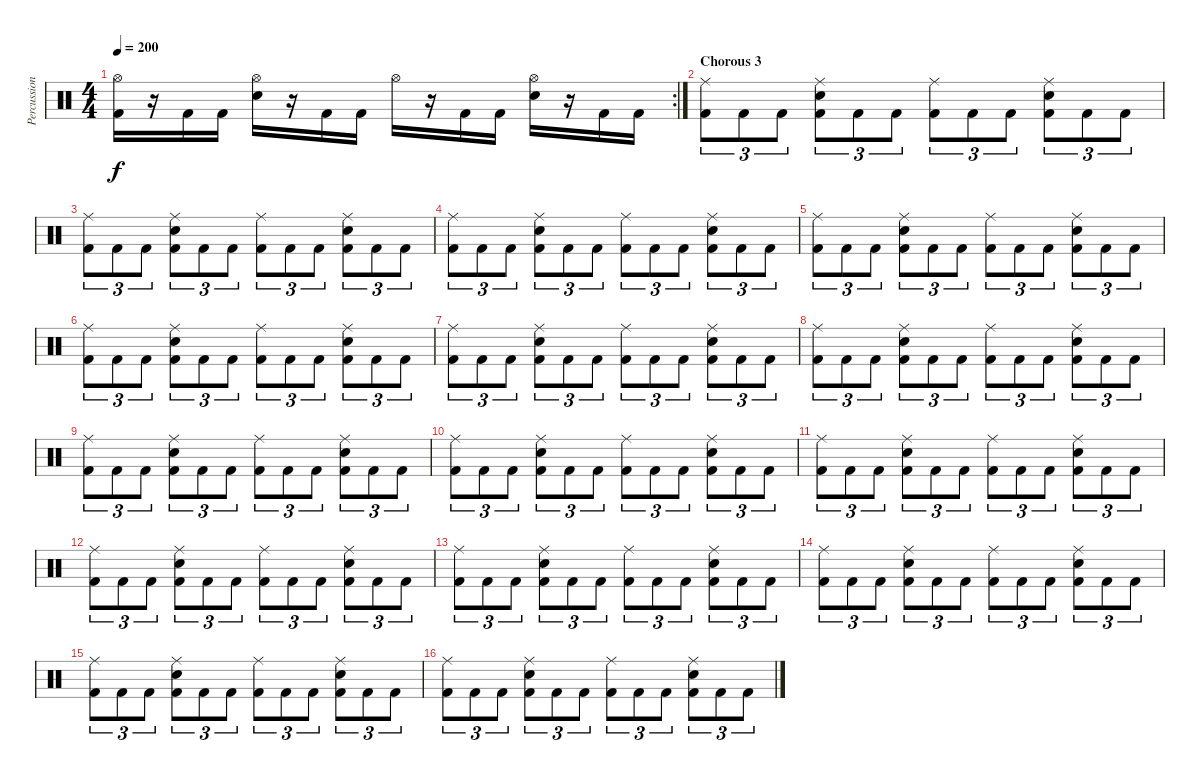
\track ("Percussion" "Percussion") {instrument percussion}
\staff {score}
\articulation defaults
\rc 2
\ts (4 4)
\tempo 200
\clef neutral
\ks c
("Hi-Hat (open)" "Kick (hit) 2").16{dy f} r.16 "Kick (hit) 2".16 "Kick (hit) 2".16 ("Hi-Hat (open)" "Electric Snare (hit)").16 r.16 "Kick (hit) 2".16 "Kick (hit) 2".16 "Hi-Hat (open)".16 r.16 "Kick (hit) 2".16 "Kick (hit) 2".16 ("Hi-Hat (open)" "Electric Snare (hit)").16 r.16 "Kick (hit) 2".16 "Kick (hit) 2".16 |
\section ("" "Chorous 3")
("Ride (middle)" "Kick (hit) 2").8{tu (3 2)} "Kick (hit) 2".8{tu (3 2)} "Kick (hit) 2".8{tu (3 2)} ("Ride (middle)" "Electric Snare (hit)" "Kick (hit) 2").8{tu (3 2)} "Kick (hit) 2".8{tu (3 2)} "Kick (hit) 2".8{tu (3 2)} ("Ride (middle)" "Kick (hit) 2").8{tu (3 2)} "Kick (hit) 2".8{tu (3 2)} "Kick (hit) 2".8{tu (3 2)} ("Ride (middle)" "Electric Snare (hit)" "Kick (hit) 2").8{tu (3 2)} "Kick (hit) 2".8{tu (3 2)} "Kick (hit) 2".8{tu (3 2)} |
("Ride (middle)" "Kick (hit) 2").8{tu (3 2)} "Kick (hit) 2".8{tu (3 2)} "Kick (hit) 2".8{tu (3 2)} ("Ride (middle)" "Electric Snare (hit)" "Kick (hit) 2").8{tu (3 2)} "Kick (hit) 2".8{tu (3 2)} "Kick (hit) 2".8{tu (3 2)} ("Ride (middle)" "Kick (hit) 2").8{tu (3 2)} "Kick (hit) 2".8{tu (3 2)} "Kick (hit) 2".8{tu (3 2)} ("Ride (middle)" "Electric Snare (hit)" "Kick (hit) 2").8{tu (3 2)} "Kick (hit) 2".8{tu (3 2)} "Kick (hit) 2".8{tu (3 2)} |
("Ride (middle)" "Kick (hit) 2").8{tu (3 2)} "Kick (hit) 2".8{tu (3 2)} "Kick (hit) 2".8{tu (3 2)} ("Ride (middle)" "Electric Snare (hit)" "Kick (hit) 2").8{tu (3 2)} "Kick (hit) 2".8{tu (3 2)} "Kick (hit) 2".8{tu (3 2)} ("Ride (middle)" "Kick (hit) 2").8{tu (3 2)} "Kick (hit) 2".8{tu (3 2)} "Kick (hit) 2".8{tu (3 2)} ("Ride (middle)" "Electric Snare (hit)" "Kick (hit) 2").8{tu (3 2)} "Kick (hit) 2".8{tu (3 2)} "Kick (hit) 2".8{tu (3 2)} |
("Ride (middle)" "Kick (hit) 2").8{tu (3 2)} "Kick (hit) 2".8{tu (3 2)} "Kick (hit) 2".8{tu (3 2)} ("Ride (middle)" "Electric Snare (hit)" "Kick (hit) 2").8{tu (3 2)} "Kick (hit) 2".8{tu (3 2)} "Kick (hit) 2".8{tu (3 2)} ("Ride (middle)" "Kick (hit) 2").8{tu (3 2)} "Kick (hit) 2".8{tu (3 2)} "Kick (hit) 2".8{tu (3 2)} ("Ride (middle)" "Electric Snare (hit)" "Kick (hit) 2").8{tu (3 2)} "Kick (hit) 2".8{tu (3 2)} "Kick (hit) 2".8{tu (3 2)} |
("Ride (middle)" "Kick (hit) 2").8{tu (3 2)} "Kick (hit) 2".8{tu (3 2)} "Kick (hit) 2".8{tu (3 2)} ("Ride (middle)" "Electric Snare (hit)" "Kick (hit) 2").8{tu (3 2)} "Kick (hit) 2".8{tu (3 2)} "Kick (hit) 2".8{tu (3 2)} ("Ride (middle)" "Kick (hit) 2").8{tu (3 2)} "Kick (hit) 2".8{tu (3 2)} "Kick (hit) 2".8{tu (3 2)} ("Ride (middle)" "Electric Snare (hit)" "Kick (hit) 2").8{tu (3 2)} "Kick (hit) 2".8{tu (3 2)} "Kick (hit) 2".8{tu (3 2)} |
("Ride (middle)" "Kick (hit) 2").8{tu (3 2)} "Kick (hit) 2".8{tu (3 2)} "Kick (hit) 2".8{tu (3 2)} ("Ride (middle)" "Electric Snare (hit)" "Kick (hit) 2").8{tu (3 2)} "Kick (hit) 2".8{tu (3 2)} "Kick (hit) 2".8{tu (3 2)} ("Ride (middle)" "Kick (hit) 2").8{tu (3 2)} "Kick (hit) 2".8{tu (3 2)} "Kick (hit) 2".8{tu (3 2)} ("Ride (middle)" "Electric Snare (hit)" "Kick (hit) 2").8{tu (3 2)} "Kick (hit) 2".8{tu (3 2)} "Kick (hit) 2".8{tu (3 2)} |
("Ride (middle)" "Kick (hit) 2").8{tu (3 2)} "Kick (hit) 2".8{tu (3 2)} "Kick (hit) 2".8{tu (3 2)} ("Ride (middle)" "Electric Snare (hit)" "Kick (hit) 2").8{tu (3 2)} "Kick (hit) 2".8{tu (3 2)} "Kick (hit) 2".8{tu (3 2)} ("Ride (middle)" "Kick (hit) 2").8{tu (3 2)} "Kick (hit) 2".8{tu (3 2)} "Kick (hit) 2".8{tu (3 2)} ("Ride (middle)" "Electric Snare (hit)" "Kick (hit) 2").8{tu (3 2)} "Kick (hit) 2".8{tu (3 2)} "Kick (hit) 2".8{tu (3 2)} |
("Ride (middle)" "Kick (hit) 2").8{tu (3 2)} "Kick (hit) 2".8{tu (3 2)} "Kick (hit) 2".8{tu (3 2)} ("Ride (middle)" "Electric Snare (hit)" "Kick (hit) 2").8{tu (3 2)} "Kick (hit) 2".8{tu (3 2)} "Kick (hit) 2".8{tu (3 2)} ("Ride (middle)" "Kick (hit) 2").8{tu (3 2)} "Kick (hit) 2".8{tu (3 2)} "Kick (hit) 2".8{tu (3 2)} ("Ride (middle)" "Electric Snare (hit)" "Kick (hit) 2").8{tu (3 2)} "Kick (hit) 2".8{tu (3 2)} "Kick (hit) 2".8{tu (3 2)} |
("Ride (middle)" "Kick (hit) 2").8{tu (3 2)} "Kick (hit) 2".8{tu (3 2)} "Kick (hit) 2".8{tu (3 2)} ("Ride (middle)" "Electric Snare (hit)" "Kick (hit) 2").8{tu (3 2)} "Kick (hit) 2".8{tu (3 2)} "Kick (hit) 2".8{tu (3 2)} ("Ride (middle)" "Kick (hit) 2").8{tu (3 2)} "Kick (hit) 2".8{tu (3 2)} "Kick (hit) 2".8{tu (3 2)} ("Ride (middle)" "Electric Snare (hit)" "Kick (hit) 2").8{tu (3 2)} "Kick (hit) 2".8{tu (3 2)} "Kick (hit) 2".8{tu (3 2)} |
("Ride (middle)" "Kick (hit) 2").8{tu (3 2)} "Kick (hit) 2".8{tu (3 2)} "Kick (hit) 2".8{tu (3 2)} ("Ride (middle)" "Electric Snare (hit)" "Kick (hit) 2").8{tu (3 2)} "Kick (hit) 2".8{tu (3 2)} "Kick (hit) 2".8{tu (3 2)} ("Ride (middle)" "Kick (hit) 2").8{tu (3 2)} "Kick (hit) 2".8{tu (3 2)} "Kick (hit) 2".8{tu (3 2)} ("Ride (middle)" "Electric Snare (hit)" "Kick (hit) 2").8{tu (3 2)} "Kick (hit) 2".8{tu (3 2)} "Kick (hit) 2".8{tu (3 2)} |
("Ride (middle)" "Kick (hit) 2").8{tu (3 2)} "Kick (hit) 2".8{tu (3 2)} "Kick (hit) 2".8{tu (3 2)} ("Ride (middle)" "Electric Snare (hit)" "Kick (hit) 2").8{tu (3 2)} "Kick (hit) 2".8{tu (3 2)} "Kick (hit) 2".8{tu (3 2)} ("Ride (middle)" "Kick (hit) 2").8{tu (3 2)} "Kick (hit) 2".8{tu (3 2)} "Kick (hit) 2".8{tu (3 2)} ("Ride (middle)" "Electric Snare (hit)" "Kick (hit) 2").8{tu (3 2)} "Kick (hit) 2".8{tu (3 2)} "Kick (hit) 2".8{tu (3 2)} |
("Ride (middle)" "Kick (hit) 2").8{tu (3 2)} "Kick (hit) 2".8{tu (3 2)} "Kick (hit) 2".8{tu (3 2)} ("Ride (middle)" "Electric Snare (hit)" "Kick (hit) 2").8{tu (3 2)} "Kick (hit) 2".8{tu (3 2)} "Kick (hit) 2".8{tu (3 2)} ("Ride (middle)" "Kick (hit) 2").8{tu (3 2)} "Kick (hit) 2".8{tu (3 2)} "Kick (hit) 2".8{tu (3 2)} ("Ride (middle)" "Electric Snare (hit)" "Kick (hit) 2").8{tu (3 2)} "Kick (hit) 2".8{tu (3 2)} "Kick (hit) 2".8{tu (3 2)} |
("Ride (middle)" "Kick (hit) 2").8{tu (3 2)} "Kick (hit) 2".8{tu (3 2)} "Kick (hit) 2".8{tu (3 2)} ("Ride (middle)" "Electric Snare (hit)" "Kick (hit) 2").8{tu (3 2)} "Kick (hit) 2".8{tu (3 2)} "Kick (hit) 2".8{tu (3 2)} ("Ride (middle)" "Kick (hit) 2").8{tu (3 2)} "Kick (hit) 2".8{tu (3 2)} "Kick (hit) 2".8{tu (3 2)} ("Ride (middle)" "Electric Snare (hit)" "Kick (hit) 2").8{tu (3 2)} "Kick (hit) 2".8{tu (3 2)} "Kick (hit) 2".8{tu (3 2)} |
("Ride (middle)" "Kick (hit) 2").8{tu (3 2)} "Kick (hit) 2".8{tu (3 2)} "Kick (hit) 2".8{tu (3 2)} ("Ride (middle)" "Electric Snare (hit)" "Kick (hit) 2").8{tu (3 2)} "Kick (hit) 2".8{tu (3 2)} "Kick (hit) 2".8{tu (3 2)} ("Ride (middle)" "Kick (hit) 2").8{tu (3 2)} "Kick (hit) 2".8{tu (3 2)} "Kick (hit) 2".8{tu (3 2)} ("Ride (middle)" "Electric Snare (hit)" "Kick (hit) 2").8{tu (3 2)} "Kick (hit) 2".8{tu (3 2)} "Kick (hit) 2".8{tu (3 2)} |
("Ride (middle)" "Kick (hit) 2").8{tu (3 2)} "Kick (hit) 2".8{tu (3 2)} "Kick (hit) 2".8{tu (3 2)} ("Ride (middle)" "Electric Snare (hit)" "Kick (hit) 2").8{tu (3 2)} "Kick (hit) 2".8{tu (3 2)} "Kick (hit) 2".8{tu (3 2)} ("Ride (middle)" "Kick (hit) 2").8{tu (3 2)} "Kick (hit) 2".8{tu (3 2)} "Kick (hit) 2".8{tu (3 2)} ("Ride (middle)" "Electric Snare (hit)" "Kick (hit) 2").8{tu (3 2)} "Kick (hit) 2".8{tu (3 2)} "Kick (hit) 2".8{tu (3 2)}
